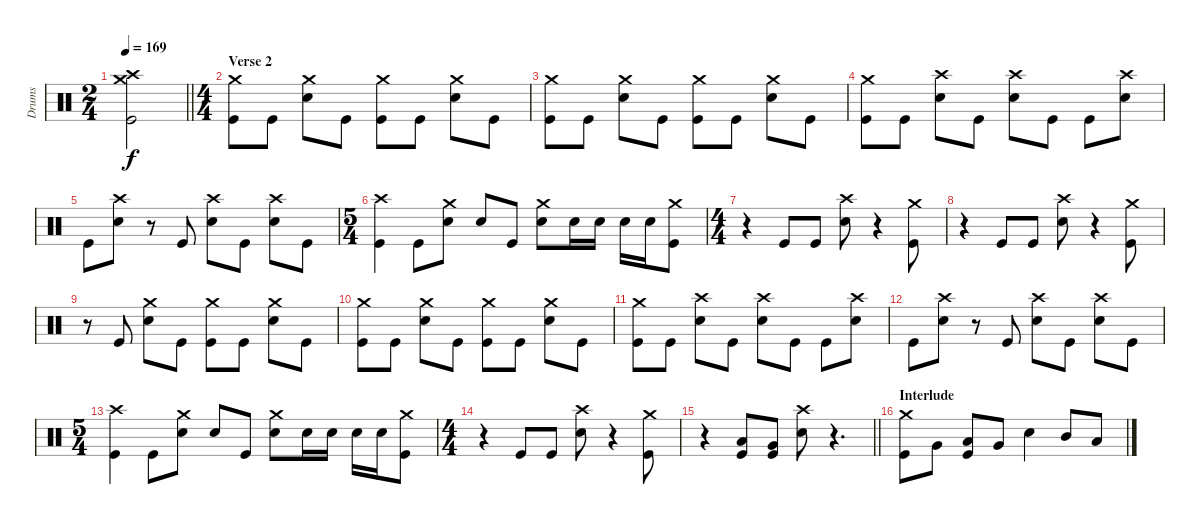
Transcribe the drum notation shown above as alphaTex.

\track ("Drums" "Drums") {instrument percussion}
\staff {score}
\articulation defaults
\ts (2 4)
\tempo 169
\clef neutral
\barLineRight lightlight
\ks c
("Crash medium (hit)" "Crash high (hit)" "Kick (hit)").2{dy f} |
\ts (4 4)
\section ("" "Verse 2")
("Crash medium (hit)" "Kick (hit)").8 "Kick (hit)".8 ("Crash medium (hit)" "Snare (hit) 2").8 "Kick (hit)".8 ("Crash medium (hit)" "Kick (hit)").8 "Kick (hit)".8 ("Crash medium (hit)" "Snare (hit) 2").8 "Kick (hit)".8 |
("Crash medium (hit)" "Kick (hit)").8 "Kick (hit)".8 ("Crash medium (hit)" "Snare (hit) 2").8 "Kick (hit)".8 ("Crash medium (hit)" "Kick (hit)").8 "Kick (hit)".8 ("Crash medium (hit)" "Snare (hit) 2").8 "Kick (hit)".8 |
("Crash medium (hit)" "Kick (hit)").8 "Kick (hit)".8 ("Crash high (hit)" "Snare (hit) 2").8 "Kick (hit)".8 ("Crash high (hit)" "Snare (hit) 2").8 "Kick (hit)".8 "Kick (hit)".8 ("Crash high (hit)" "Snare (hit) 2").8 |
"Kick (hit)".8 ("Crash high (hit)" "Snare (hit) 2").8 r.8 "Kick (hit)".8 ("Crash high (hit)" "Snare (hit) 2").8 "Kick (hit)".8 ("Crash high (hit)" "Snare (hit) 2").8 "Kick (hit)".8 |
\ts (5 4)
("Crash high (hit)" "Kick (hit)").4 "Kick (hit)".8 ("Crash medium (hit)" "Snare (hit) 2").8 "Snare (hit) 2".8 "Kick (hit)".8 ("Crash medium (hit)" "Snare (hit) 2").8 "Snare (hit) 2".16 "Snare (hit) 2".16 "Snare (hit) 2".16 "Snare (hit) 2".16 ("Crash medium (hit)" "Kick (hit)").8 |
\ts (4 4)
r.4 "Kick (hit)".8 "Kick (hit)".8 ("Crash high (hit)" "Snare (hit) 2").8 r.4 ("Crash medium (hit)" "Kick (hit)").8 |
r.4 "Kick (hit)".8 "Kick (hit)".8 ("Crash high (hit)" "Snare (hit) 2").8 r.4 ("Crash medium (hit)" "Kick (hit)").8 |
r.8 "Kick (hit)".8 ("Crash medium (hit)" "Snare (hit) 2").8 "Kick (hit)".8 ("Crash medium (hit)" "Kick (hit)").8 "Kick (hit)".8 ("Crash medium (hit)" "Snare (hit) 2").8 "Kick (hit)".8 |
("Crash medium (hit)" "Kick (hit)").8 "Kick (hit)".8 ("Crash medium (hit)" "Snare (hit) 2").8 "Kick (hit)".8 ("Crash medium (hit)" "Kick (hit)").8 "Kick (hit)".8 ("Crash medium (hit)" "Snare (hit) 2").8 "Kick (hit)".8 |
("Crash medium (hit)" "Kick (hit)").8 "Kick (hit)".8 ("Crash high (hit)" "Snare (hit) 2").8 "Kick (hit)".8 ("Crash high (hit)" "Snare (hit) 2").8 "Kick (hit)".8 "Kick (hit)".8 ("Crash high (hit)" "Snare (hit) 2").8 |
"Kick (hit)".8 ("Crash high (hit)" "Snare (hit) 2").8 r.8 "Kick (hit)".8 ("Crash high (hit)" "Snare (hit) 2").8 "Kick (hit)".8 ("Crash high (hit)" "Snare (hit) 2").8 "Kick (hit)".8 |
\ts (5 4)
("Crash high (hit)" "Kick (hit)").4 "Kick (hit)".8 ("Crash medium (hit)" "Snare (hit) 2").8 "Snare (hit) 2".8 "Kick (hit)".8 ("Crash medium (hit)" "Snare (hit) 2").8 "Snare (hit) 2".16 "Snare (hit) 2".16 "Snare (hit) 2".16 "Snare (hit) 2".16 ("Crash medium (hit)" "Kick (hit)").8 |
\ts (4 4)
r.4 "Kick (hit)".8 "Kick (hit)".8 ("Crash high (hit)" "Snare (hit) 2").8 r.4 ("Crash medium (hit)" "Kick (hit)").8 |
\barLineRight lightlight
r.4 ("Low Tom (hit)" "Kick (hit)").8 ("Very Low Tom (hit)" "Kick (hit)").8 ("Crash high (hit)" "Snare (hit) 2").8 r.4{d} |
\section ("" "Interlude")
("Crash medium (hit)" "Kick (hit)").8 "Very Low Tom (hit)".8 ("Low Tom (hit)" "Kick (hit)").8 "Very Low Tom (hit)".8 "Snare (hit) 2".4 "Mid Tom (hit)".8 "Low Tom (hit)".8
